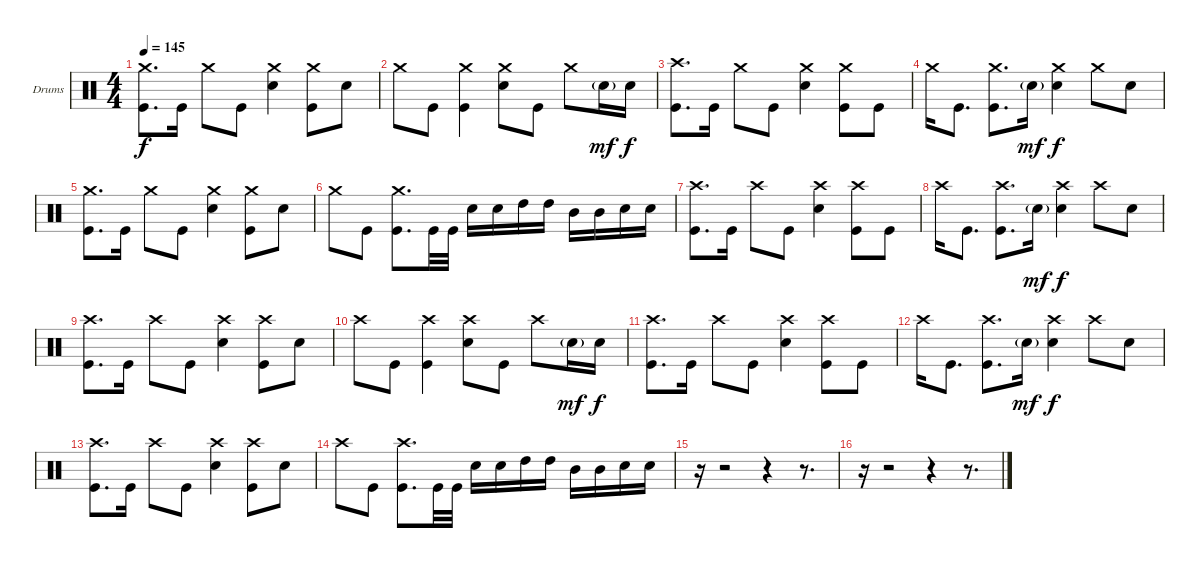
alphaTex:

\bracketExtendMode groupsimilarinstruments
\firstSystemTrackNameOrientation horizontal
\otherSystemsTrackNameOrientation horizontal
\track ("Drumkit" "Drums") {instrument percussion}
\staff {score}
\articulation defaults
\ts (4 4)
\tempo 145
\clef neutral
\ks c
("Crash medium (hit)" "Kick (hit)").8{d dy f} "Kick (hit)".16 "Crash medium (hit)".8 "Kick (hit)".8 ("Crash medium (hit)" "Snare (hit) 2").4 ("Crash medium (hit)" "Kick (hit)").8 "Snare (hit) 2".8 |
"Crash medium (hit)".8 "Kick (hit)".8 ("Crash medium (hit)" "Kick (hit)").4 ("Crash medium (hit)" "Snare (hit) 2").8 "Kick (hit)".8 "Crash medium (hit)".8 "Snare (hit) 2"{g}.16{dy mf} "Snare (hit) 2".16{dy f} |
("Crash high (hit)" "Kick (hit)").8{d} "Kick (hit)".16 "Crash medium (hit)".8 "Kick (hit)".8 ("Crash medium (hit)" "Snare (hit) 2").4 ("Crash medium (hit)" "Kick (hit)").8 "Kick (hit)".8 |
"Crash medium (hit)".16 "Kick (hit)".8{d} ("Crash medium (hit)" "Kick (hit)").8{d} "Snare (hit) 2"{g}.16{dy mf} ("Crash medium (hit)" "Snare (hit) 2").4{dy f} "Crash medium (hit)".8 "Snare (hit) 2".8 |
("Crash medium (hit)" "Kick (hit)").8{d} "Kick (hit)".16 "Crash medium (hit)".8 "Kick (hit)".8 ("Crash medium (hit)" "Snare (hit) 2").4 ("Crash medium (hit)" "Kick (hit)").8 "Snare (hit) 2".8 |
"Crash medium (hit)".8 "Kick (hit)".8 ("Crash medium (hit)" "Kick (hit)").8{d} "Kick (hit)".32 "Kick (hit)".32 "Snare (hit) 2".16 "Snare (hit) 2".16 "High Tom (hit)".16 "High Tom (hit)".16 "Mid Tom (hit)".16 "Mid Tom (hit)".16 "Snare (hit) 2".16 "Snare (hit) 2".16 |
("Crash high (hit)" "Kick (hit)").8{d} "Kick (hit)".16 "Crash high (hit)".8 "Kick (hit)".8 ("Crash high (hit)" "Snare (hit) 2").4 ("Crash high (hit)" "Kick (hit)").8 "Kick (hit)".8 |
"Crash high (hit)".16 "Kick (hit)".8{d} ("Crash high (hit)" "Kick (hit)").8{d} "Snare (hit) 2"{g}.16{dy mf} ("Crash high (hit)" "Snare (hit) 2").4{dy f} "Crash high (hit)".8 "Snare (hit) 2".8 |
("Crash high (hit)" "Kick (hit)").8{d} "Kick (hit)".16 "Crash high (hit)".8 "Kick (hit)".8 ("Crash high (hit)" "Snare (hit) 2").4 ("Crash high (hit)" "Kick (hit)").8 "Snare (hit) 2".8 |
"Crash high (hit)".8 "Kick (hit)".8 ("Crash high (hit)" "Kick (hit)").4 ("Crash high (hit)" "Snare (hit) 2").8 "Kick (hit)".8 "Crash high (hit)".8 "Snare (hit) 2"{g}.16{dy mf} "Snare (hit) 2".16{dy f} |
("Crash high (hit)" "Kick (hit)").8{d} "Kick (hit)".16 "Crash high (hit)".8 "Kick (hit)".8 ("Crash high (hit)" "Snare (hit) 2").4 ("Crash high (hit)" "Kick (hit)").8 "Kick (hit)".8 |
"Crash high (hit)".16 "Kick (hit)".8{d} ("Crash high (hit)" "Kick (hit)").8{d} "Snare (hit) 2"{g}.16{dy mf} ("Crash high (hit)" "Snare (hit) 2").4{dy f} "Crash high (hit)".8 "Snare (hit) 2".8 |
("Crash high (hit)" "Kick (hit)").8{d} "Kick (hit)".16 "Crash high (hit)".8 "Kick (hit)".8 ("Crash high (hit)" "Snare (hit) 2").4 ("Crash high (hit)" "Kick (hit)").8 "Snare (hit) 2".8 |
"Crash high (hit)".8 "Kick (hit)".8 ("Crash high (hit)" "Kick (hit)").8{d} "Kick (hit)".32 "Kick (hit)".32 "Snare (hit) 2".16 "Snare (hit) 2".16 "High Tom (hit)".16 "High Tom (hit)".16 "Mid Tom (hit)".16 "Mid Tom (hit)".16 "Snare (hit) 2".16 "Snare (hit) 2".16 |
r.16 r.2 r.4 r.8{d} |
r.16 r.2 r.4 r.8{d}
